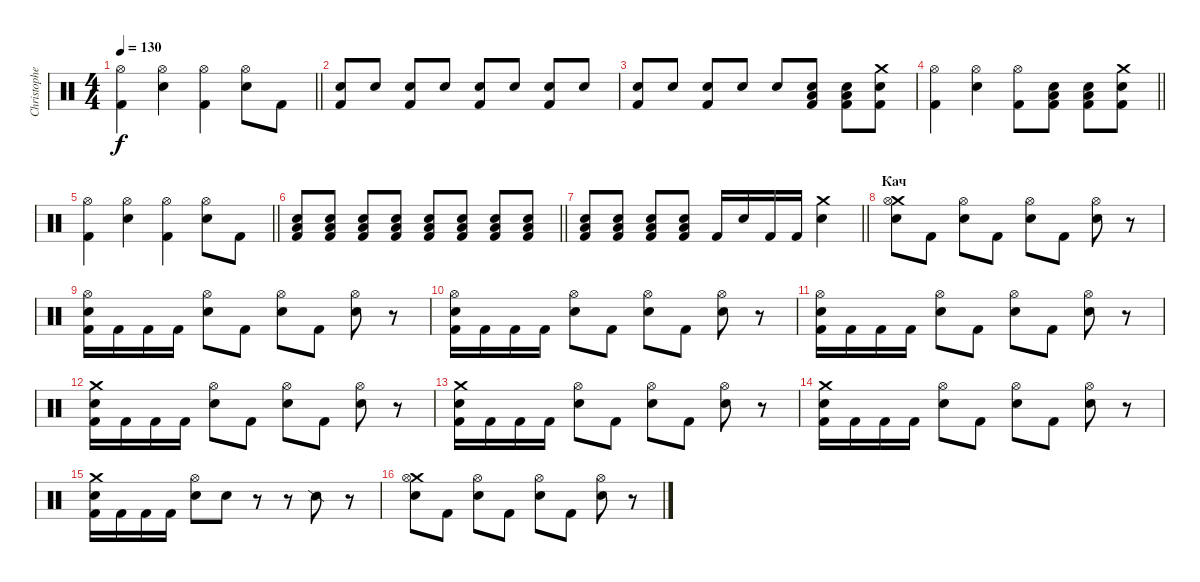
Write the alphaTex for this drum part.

\track ("Christopher Schneider" "Christophe") {instrument percussion}
\staff {score}
\articulation defaults
\ts (4 4)
\tempo 130
\clef neutral
\barLineRight lightlight
\ks c
("Hi-Hat (open)" "Kick (hit) 2").4{dy f} ("Hi-Hat (open)" "Electric Snare (hit)").4 ("Hi-Hat (open)" "Kick (hit) 2").4 ("Hi-Hat (open)" "Electric Snare (hit)").8 "Kick (hit) 2".8 |
("Kick (hit) 2" "Electric Snare (hit)").8 "Electric Snare (hit)".8 ("Kick (hit) 2" "Electric Snare (hit)").8 "Electric Snare (hit)".8 ("Kick (hit) 2" "Electric Snare (hit)").8 "Electric Snare (hit)".8 ("Kick (hit) 2" "Electric Snare (hit)").8 "Electric Snare (hit)".8 |
("Kick (hit) 2" "Electric Snare (hit)").8 "Electric Snare (hit)".8 ("Kick (hit) 2" "Electric Snare (hit)").8 "Electric Snare (hit)".8 "Electric Snare (hit)".8 ("Low Tom (hit)" "Electric Snare (hit)" "Kick (hit) 2").8 ("Low Tom (hit)" "Electric Snare (hit)" "Kick (hit) 2").8 ("Crash medium (hit)" "Electric Snare (hit)" "Kick (hit) 2").8 |
\barLineRight lightlight
("Hi-Hat (open)" "Kick (hit) 2").4 ("Hi-Hat (open)" "Electric Snare (hit)").4 ("Hi-Hat (open)" "Kick (hit) 2").8 ("Low Tom (hit)" "Electric Snare (hit)" "Kick (hit) 2").8 ("Low Tom (hit)" "Electric Snare (hit)" "Kick (hit) 2").8 ("Crash medium (hit)" "Electric Snare (hit)" "Kick (hit) 2").8 |
\barLineRight lightlight
("Hi-Hat (open)" "Kick (hit) 2").4 ("Hi-Hat (open)" "Electric Snare (hit)").4 ("Hi-Hat (open)" "Kick (hit) 2").4 ("Hi-Hat (open)" "Electric Snare (hit)").8 "Kick (hit) 2".8 |
\barLineRight lightlight
("Kick (hit) 2" "Electric Snare (hit)" "Low Tom (hit)").8 ("Kick (hit) 2" "Electric Snare (hit)" "Low Tom (hit)").8 ("Kick (hit) 2" "Electric Snare (hit)" "Low Tom (hit)").8 ("Kick (hit) 2" "Electric Snare (hit)" "Low Tom (hit)").8 ("Kick (hit) 2" "Electric Snare (hit)" "Low Tom (hit)").8 ("Kick (hit) 2" "Electric Snare (hit)" "Low Tom (hit)").8 ("Kick (hit) 2" "Electric Snare (hit)" "Low Tom (hit)").8 ("Kick (hit) 2" "Electric Snare (hit)" "Low Tom (hit)").8 |
\barLineRight lightlight
("Kick (hit) 2" "Electric Snare (hit)" "Low Tom (hit)").8 ("Kick (hit) 2" "Electric Snare (hit)" "Low Tom (hit)").8 ("Kick (hit) 2" "Electric Snare (hit)" "Low Tom (hit)").8 ("Kick (hit) 2" "Electric Snare (hit)" "Low Tom (hit)").8 "Kick (hit) 2".16 "Electric Snare (hit)".16 "Kick (hit) 2".16 "Kick (hit) 2".16 ("Electric Snare (hit)" "Crash medium (hit)").4 |
\section ("" "Кач")
("Electric Snare (hit)" "Crash medium (hit)" "Hi-Hat (open)").8 "Kick (hit) 2".8 ("Electric Snare (hit)" "Hi-Hat (open)").8 "Kick (hit) 2".8 ("Electric Snare (hit)" "Hi-Hat (open)").8 "Kick (hit) 2".8 ("Electric Snare (hit)" "Hi-Hat (open)").8 r.8 |
("Electric Snare (hit)" "Kick (hit) 2" "Hi-Hat (open)").16 "Kick (hit) 2".16 "Kick (hit) 2".16 "Kick (hit) 2".16 ("Electric Snare (hit)" "Hi-Hat (open)").8 "Kick (hit) 2".8 ("Electric Snare (hit)" "Hi-Hat (open)").8 "Kick (hit) 2".8 ("Electric Snare (hit)" "Hi-Hat (open)").8 r.8 |
("Electric Snare (hit)" "Kick (hit) 2" "Hi-Hat (open)").16 "Kick (hit) 2".16 "Kick (hit) 2".16 "Kick (hit) 2".16 ("Electric Snare (hit)" "Hi-Hat (open)").8 "Kick (hit) 2".8 ("Electric Snare (hit)" "Hi-Hat (open)").8 "Kick (hit) 2".8 ("Electric Snare (hit)" "Hi-Hat (open)").8 r.8 |
("Electric Snare (hit)" "Kick (hit) 2" "Hi-Hat (open)").16 "Kick (hit) 2".16 "Kick (hit) 2".16 "Kick (hit) 2".16 ("Electric Snare (hit)" "Hi-Hat (open)").8 "Kick (hit) 2".8 ("Electric Snare (hit)" "Hi-Hat (open)").8 "Kick (hit) 2".8 ("Electric Snare (hit)" "Hi-Hat (open)").8 r.8 |
("Electric Snare (hit)" "Kick (hit) 2" "Crash medium (hit)").16 "Kick (hit) 2".16 "Kick (hit) 2".16 "Kick (hit) 2".16 ("Electric Snare (hit)" "Hi-Hat (open)").8 "Kick (hit) 2".8 ("Electric Snare (hit)" "Hi-Hat (open)").8 "Kick (hit) 2".8 ("Electric Snare (hit)" "Hi-Hat (open)").8 r.8 |
("Electric Snare (hit)" "Kick (hit) 2" "Crash medium (hit)").16 "Kick (hit) 2".16 "Kick (hit) 2".16 "Kick (hit) 2".16 ("Electric Snare (hit)" "Hi-Hat (open)").8 "Kick (hit) 2".8 ("Electric Snare (hit)" "Hi-Hat (open)").8 "Kick (hit) 2".8 ("Electric Snare (hit)" "Hi-Hat (open)").8 r.8 |
("Electric Snare (hit)" "Kick (hit) 2" "Crash medium (hit)").16 "Kick (hit) 2".16 "Kick (hit) 2".16 "Kick (hit) 2".16 ("Electric Snare (hit)" "Hi-Hat (open)").8 "Kick (hit) 2".8 ("Electric Snare (hit)" "Hi-Hat (open)").8 "Kick (hit) 2".8 ("Electric Snare (hit)" "Hi-Hat (open)").8 r.8 |
("Electric Snare (hit)" "Kick (hit) 2" "Crash medium (hit)").16 "Kick (hit) 2".16 "Kick (hit) 2".16 "Kick (hit) 2".16 ("Electric Snare (hit)" "Hi-Hat (open)").8 "Electric Snare (hit)".8 r.8 r.8 "Snare (side stick) 2".8 r.8 |
("Electric Snare (hit)" "Crash medium (hit)" "Hi-Hat (open)").8 "Kick (hit) 2".8 ("Electric Snare (hit)" "Hi-Hat (open)").8 "Kick (hit) 2".8 ("Electric Snare (hit)" "Hi-Hat (open)").8 "Kick (hit) 2".8 ("Electric Snare (hit)" "Hi-Hat (open)").8 r.8
